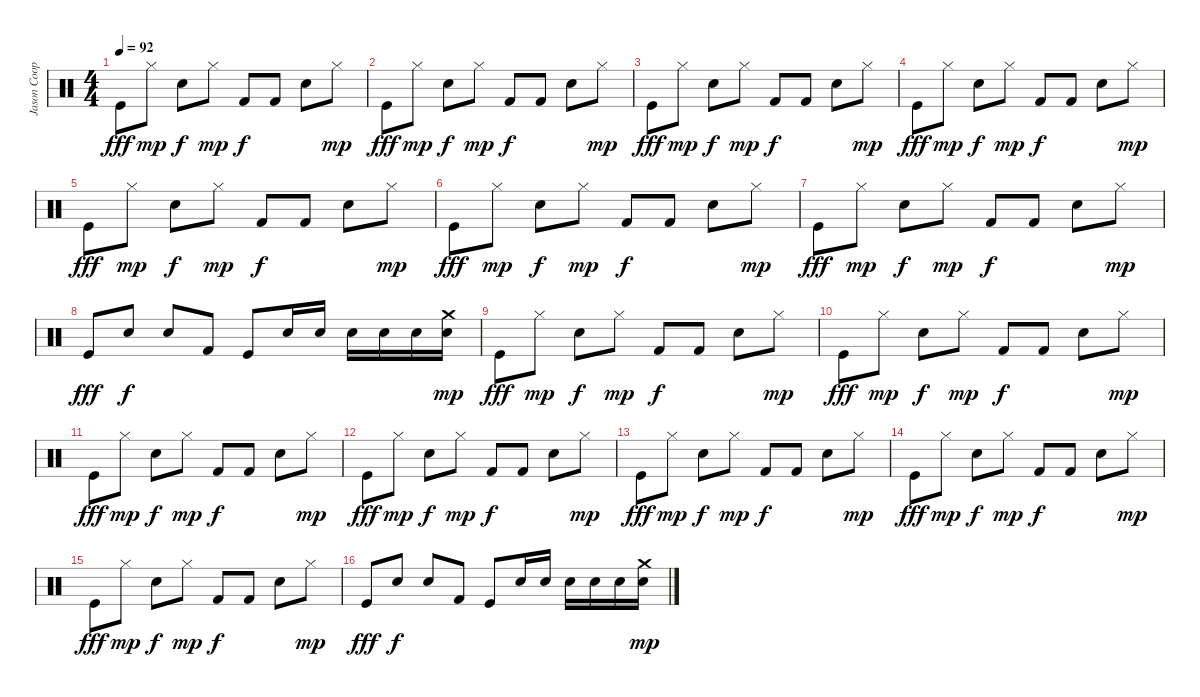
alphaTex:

\track ("Jason Cooper " "Jason Coop") {instrument percussion}
\staff {score}
\articulation defaults
\ts (4 4)
\tempo 92
\clef neutral
\ks c "Kick (hit)".8{dy fff} "Hi-Hat (closed)".8{dy mp} "Snare (hit) 2".8{dy f} "Hi-Hat (closed)".8{dy mp} "Kick (hit) 2".8{dy f} "Kick (hit) 2".8 "Snare (hit) 2".8 "Hi-Hat (closed)".8{dy mp}
|
"Kick (hit)".8{dy fff} "Hi-Hat (closed)".8{dy mp} "Snare (hit) 2".8{dy f} "Hi-Hat (closed)".8{dy mp} "Kick (hit) 2".8{dy f} "Kick (hit) 2".8 "Snare (hit) 2".8 "Hi-Hat (closed)".8{dy mp} |
"Kick (hit)".8{dy fff} "Hi-Hat (closed)".8{dy mp} "Snare (hit) 2".8{dy f} "Hi-Hat (closed)".8{dy mp} "Kick (hit) 2".8{dy f} "Kick (hit) 2".8 "Snare (hit) 2".8 "Hi-Hat (closed)".8{dy mp} |
"Kick (hit)".8{dy fff} "Hi-Hat (closed)".8{dy mp} "Snare (hit) 2".8{dy f} "Hi-Hat (closed)".8{dy mp} "Kick (hit) 2".8{dy f} "Kick (hit) 2".8 "Snare (hit) 2".8 "Hi-Hat (closed)".8{dy mp} |
"Kick (hit)".8{dy fff} "Hi-Hat (closed)".8{dy mp} "Snare (hit) 2".8{dy f} "Hi-Hat (closed)".8{dy mp} "Kick (hit) 2".8{dy f} "Kick (hit) 2".8 "Snare (hit) 2".8 "Hi-Hat (closed)".8{dy mp} |
"Kick (hit)".8{dy fff} "Hi-Hat (closed)".8{dy mp} "Snare (hit) 2".8{dy f} "Hi-Hat (closed)".8{dy mp} "Kick (hit) 2".8{dy f} "Kick (hit) 2".8 "Snare (hit) 2".8 "Hi-Hat (closed)".8{dy mp} |
"Kick (hit)".8{dy fff} "Hi-Hat (closed)".8{dy mp} "Snare (hit) 2".8{dy f} "Hi-Hat (closed)".8{dy mp} "Kick (hit) 2".8{dy f} "Kick (hit) 2".8 "Snare (hit) 2".8 "Hi-Hat (closed)".8{dy mp} |
"Kick (hit)".8{dy fff} "Snare (hit) 2".8{dy f} "Snare (hit) 2".8 "Kick (hit) 2".8 "Kick (hit)".8 "Snare (hit) 2".16 "Snare (hit) 2".16 "Snare (hit) 2".16 "Snare (hit) 2".16 "Snare (hit) 2".16 ("Electric Snare (hit)" "Crash medium (hit)").16{dy mp} |
"Kick (hit)".8{dy fff} "Hi-Hat (closed)".8{dy mp} "Snare (hit) 2".8{dy f} "Hi-Hat (closed)".8{dy mp} "Kick (hit) 2".8{dy f} "Kick (hit) 2".8 "Snare (hit) 2".8 "Hi-Hat (closed)".8{dy mp} |
"Kick (hit)".8{dy fff} "Hi-Hat (closed)".8{dy mp} "Snare (hit) 2".8{dy f} "Hi-Hat (closed)".8{dy mp} "Kick (hit) 2".8{dy f} "Kick (hit) 2".8 "Snare (hit) 2".8 "Hi-Hat (closed)".8{dy mp} |
"Kick (hit)".8{dy fff} "Hi-Hat (closed)".8{dy mp} "Snare (hit) 2".8{dy f} "Hi-Hat (closed)".8{dy mp} "Kick (hit) 2".8{dy f} "Kick (hit) 2".8 "Snare (hit) 2".8 "Hi-Hat (closed)".8{dy mp} |
"Kick (hit)".8{dy fff} "Hi-Hat (closed)".8{dy mp} "Snare (hit) 2".8{dy f} "Hi-Hat (closed)".8{dy mp} "Kick (hit) 2".8{dy f} "Kick (hit) 2".8 "Snare (hit) 2".8 "Hi-Hat (closed)".8{dy mp} |
"Kick (hit)".8{dy fff} "Hi-Hat (closed)".8{dy mp} "Snare (hit) 2".8{dy f} "Hi-Hat (closed)".8{dy mp} "Kick (hit) 2".8{dy f} "Kick (hit) 2".8 "Snare (hit) 2".8 "Hi-Hat (closed)".8{dy mp} |
"Kick (hit)".8{dy fff} "Hi-Hat (closed)".8{dy mp} "Snare (hit) 2".8{dy f} "Hi-Hat (closed)".8{dy mp} "Kick (hit) 2".8{dy f} "Kick (hit) 2".8 "Snare (hit) 2".8 "Hi-Hat (closed)".8{dy mp} |
"Kick (hit)".8{dy fff} "Hi-Hat (closed)".8{dy mp} "Snare (hit) 2".8{dy f} "Hi-Hat (closed)".8{dy mp} "Kick (hit) 2".8{dy f} "Kick (hit) 2".8 "Snare (hit) 2".8 "Hi-Hat (closed)".8{dy mp} |
"Kick (hit)".8{dy fff} "Snare (hit) 2".8{dy f} "Snare (hit) 2".8 "Kick (hit) 2".8 "Kick (hit)".8 "Snare (hit) 2".16 "Snare (hit) 2".16 "Snare (hit) 2".16 "Snare (hit) 2".16 "Snare (hit) 2".16 ("Electric Snare (hit)" "Crash medium (hit)").16{dy mp}
